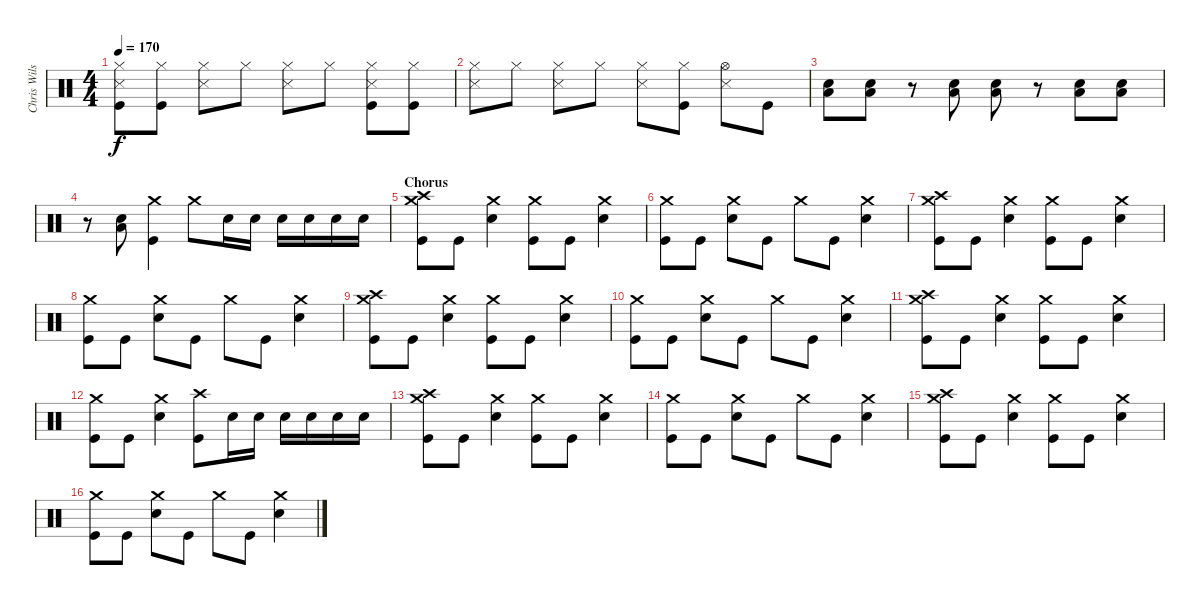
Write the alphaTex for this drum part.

\track ("Chris Wilson" "Chris Wils") {instrument percussion}
\staff {score}
\articulation defaults
\ts (4 4)
\tempo 170
\clef neutral
\ks c
("Hi-Hat (closed)" "Snare (side stick) 3" "Kick (hit)").8{dy f} ("Hi-Hat (closed)" "Kick (hit)").8 ("Hi-Hat (closed)" "Snare (side stick) 3").8 "Hi-Hat (closed)".8 ("Hi-Hat (closed)" "Snare (side stick) 3").8 "Hi-Hat (closed)".8 ("Hi-Hat (closed)" "Snare (side stick) 3" "Kick (hit)").8 ("Hi-Hat (closed)" "Kick (hit)").8 |
("Hi-Hat (closed)" "Snare (side stick) 3").8 "Hi-Hat (closed)".8 ("Hi-Hat (closed)" "Snare (side stick) 3").8 "Hi-Hat (closed)".8 ("Hi-Hat (closed)" "Snare (side stick) 3").8 ("Hi-Hat (closed)" "Kick (hit)").8 ("Hi-Hat (open)" "Snare (side stick) 3").8 "Kick (hit)".8 |
("Low Tom (hit)" "Electric Snare (hit)").8 ("Low Tom (hit)" "Electric Snare (hit)").8 r.8 ("Low Tom (hit)" "Electric Snare (hit)").8 ("Low Tom (hit)" "Electric Snare (hit)").8 r.8 ("Low Tom (hit)" "Electric Snare (hit)").8 ("Low Tom (hit)" "Electric Snare (hit)").8 |
r.8 ("Low Tom (hit)" "Electric Snare (hit)").8 ("Crash medium (hit)" "Kick (hit)").4 "Crash medium (hit)".8 "Electric Snare (hit)".16 "Electric Snare (hit)".16 "Electric Snare (hit)".16 "Electric Snare (hit)".16 "Electric Snare (hit)".16 "Electric Snare (hit)".16 |
\section ("" "Chorus")
("Crash high (hit)" "Crash medium (hit)" "Kick (hit)").8 "Kick (hit)".8 ("Crash medium (hit)" "Electric Snare (hit)").4 ("Crash medium (hit)" "Kick (hit)").8 "Kick (hit)".8 ("Crash medium (hit)" "Electric Snare (hit)").4 |
("Crash medium (hit)" "Kick (hit)").8 "Kick (hit)".8 ("Crash medium (hit)" "Electric Snare (hit)").8 "Kick (hit)".8 "Crash medium (hit)".8 "Kick (hit)".8 ("Crash medium (hit)" "Electric Snare (hit)").4 |
("Crash high (hit)" "Crash medium (hit)" "Kick (hit)").8 "Kick (hit)".8 ("Crash medium (hit)" "Electric Snare (hit)").4 ("Crash medium (hit)" "Kick (hit)").8 "Kick (hit)".8 ("Crash medium (hit)" "Electric Snare (hit)").4 |
("Crash medium (hit)" "Kick (hit)").8 "Kick (hit)".8 ("Crash medium (hit)" "Electric Snare (hit)").8 "Kick (hit)".8 "Crash medium (hit)".8 "Kick (hit)".8 ("Crash medium (hit)" "Electric Snare (hit)").4 |
("Crash high (hit)" "Crash medium (hit)" "Kick (hit)").8 "Kick (hit)".8 ("Crash medium (hit)" "Electric Snare (hit)").4 ("Crash medium (hit)" "Kick (hit)").8 "Kick (hit)".8 ("Crash medium (hit)" "Electric Snare (hit)").4 |
("Crash medium (hit)" "Kick (hit)").8 "Kick (hit)".8 ("Crash medium (hit)" "Electric Snare (hit)").8 "Kick (hit)".8 "Crash medium (hit)".8 "Kick (hit)".8 ("Crash medium (hit)" "Electric Snare (hit)").4 |
("Crash high (hit)" "Crash medium (hit)" "Kick (hit)").8 "Kick (hit)".8 ("Crash medium (hit)" "Electric Snare (hit)").4 ("Crash medium (hit)" "Kick (hit)").8 "Kick (hit)".8 ("Crash medium (hit)" "Electric Snare (hit)").4 |
("Crash medium (hit)" "Kick (hit)").8 "Kick (hit)".8 ("Crash medium (hit)" "Electric Snare (hit)").4 ("Crash high (hit)" "Kick (hit)").8 "Electric Snare (hit)".16 "Electric Snare (hit)".16 "Electric Snare (hit)".16 "Electric Snare (hit)".16 "Electric Snare (hit)".16 "Electric Snare (hit)".16 |
("Crash high (hit)" "Crash medium (hit)" "Kick (hit)").8 "Kick (hit)".8 ("Crash medium (hit)" "Electric Snare (hit)").4 ("Crash medium (hit)" "Kick (hit)").8 "Kick (hit)".8 ("Crash medium (hit)" "Electric Snare (hit)").4 |
("Crash medium (hit)" "Kick (hit)").8 "Kick (hit)".8 ("Crash medium (hit)" "Electric Snare (hit)").8 "Kick (hit)".8 "Crash medium (hit)".8 "Kick (hit)".8 ("Crash medium (hit)" "Electric Snare (hit)").4 |
("Crash high (hit)" "Crash medium (hit)" "Kick (hit)").8 "Kick (hit)".8 ("Crash medium (hit)" "Electric Snare (hit)").4 ("Crash medium (hit)" "Kick (hit)").8 "Kick (hit)".8 ("Crash medium (hit)" "Electric Snare (hit)").4 |
("Crash medium (hit)" "Kick (hit)").8 "Kick (hit)".8 ("Crash medium (hit)" "Electric Snare (hit)").8 "Kick (hit)".8 "Crash medium (hit)".8 "Kick (hit)".8 ("Crash medium (hit)" "Electric Snare (hit)").4
